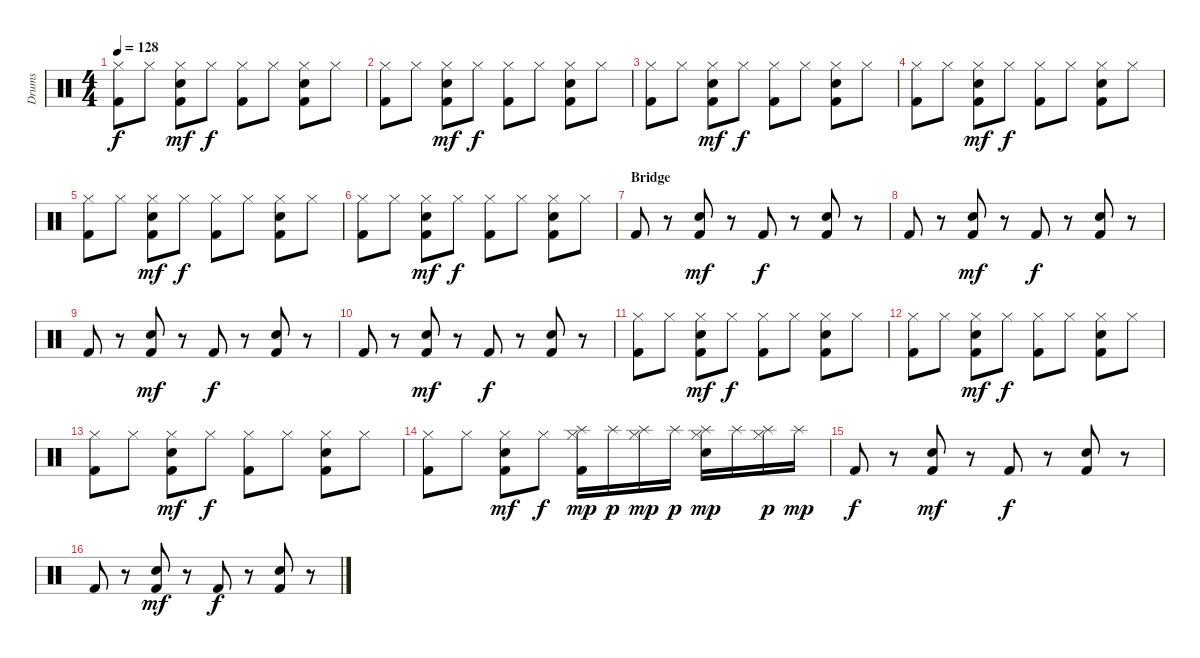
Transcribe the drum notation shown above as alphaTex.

\track ("Drums" "Drums") {instrument percussion}
\staff {score}
\articulation defaults
\ts (4 4)
\tempo 128
\clef neutral
\ks c
("Kick (hit) 2" "Hi-Hat (closed)").8{dy f} "Hi-Hat (closed)".8 ("Kick (hit) 2" "Snare (hit) 2" "Hi-Hat (closed)").8{dy mf} "Hi-Hat (closed)".8{dy f} ("Kick (hit) 2" "Hi-Hat (closed)").8 "Hi-Hat (closed)".8 ("Kick (hit) 2" "Snare (hit) 2" "Hi-Hat (closed)").8 "Hi-Hat (closed)".8 |
("Kick (hit) 2" "Hi-Hat (closed)").8 "Hi-Hat (closed)".8 ("Kick (hit) 2" "Snare (hit) 2" "Hi-Hat (closed)").8{dy mf} "Hi-Hat (closed)".8{dy f} ("Kick (hit) 2" "Hi-Hat (closed)").8 "Hi-Hat (closed)".8 ("Kick (hit) 2" "Snare (hit) 2" "Hi-Hat (closed)").8 "Hi-Hat (closed)".8 |
("Kick (hit) 2" "Hi-Hat (closed)").8 "Hi-Hat (closed)".8 ("Kick (hit) 2" "Snare (hit) 2" "Hi-Hat (closed)").8{dy mf} "Hi-Hat (closed)".8{dy f} ("Kick (hit) 2" "Hi-Hat (closed)").8 "Hi-Hat (closed)".8 ("Kick (hit) 2" "Snare (hit) 2" "Hi-Hat (closed)").8 "Hi-Hat (closed)".8 |
("Kick (hit) 2" "Hi-Hat (closed)").8 "Hi-Hat (closed)".8 ("Kick (hit) 2" "Snare (hit) 2" "Hi-Hat (closed)").8{dy mf} "Hi-Hat (closed)".8{dy f} ("Kick (hit) 2" "Hi-Hat (closed)").8 "Hi-Hat (closed)".8 ("Kick (hit) 2" "Snare (hit) 2" "Hi-Hat (closed)").8 "Hi-Hat (closed)".8 |
("Kick (hit) 2" "Hi-Hat (closed)").8 "Hi-Hat (closed)".8 ("Kick (hit) 2" "Snare (hit) 2" "Hi-Hat (closed)").8{dy mf} "Hi-Hat (closed)".8{dy f} ("Kick (hit) 2" "Hi-Hat (closed)").8 "Hi-Hat (closed)".8 ("Kick (hit) 2" "Snare (hit) 2" "Hi-Hat (closed)").8 "Hi-Hat (closed)".8 |
("Kick (hit) 2" "Hi-Hat (closed)").8 "Hi-Hat (closed)".8 ("Kick (hit) 2" "Snare (hit) 2" "Hi-Hat (closed)").8{dy mf} "Hi-Hat (closed)".8{dy f} ("Kick (hit) 2" "Hi-Hat (closed)").8 "Hi-Hat (closed)".8 ("Kick (hit) 2" "Snare (hit) 2" "Hi-Hat (closed)").8 "Hi-Hat (closed)".8 |
\section ("" "Bridge")
"Kick (hit) 2".8 r.8 ("Kick (hit) 2" "Snare (hit) 2").8{dy mf} r.8 "Kick (hit) 2".8{dy f} r.8 ("Kick (hit) 2" "Snare (hit) 2").8 r.8 |
"Kick (hit) 2".8 r.8 ("Kick (hit) 2" "Snare (hit) 2").8{dy mf} r.8 "Kick (hit) 2".8{dy f} r.8 ("Kick (hit) 2" "Snare (hit) 2").8 r.8 |
"Kick (hit) 2".8 r.8 ("Kick (hit) 2" "Snare (hit) 2").8{dy mf} r.8 "Kick (hit) 2".8{dy f} r.8 ("Kick (hit) 2" "Snare (hit) 2").8 r.8 |
"Kick (hit) 2".8 r.8 ("Kick (hit) 2" "Snare (hit) 2").8{dy mf} r.8 "Kick (hit) 2".8{dy f} r.8 ("Kick (hit) 2" "Snare (hit) 2").8 r.8 |
("Kick (hit) 2" "Hi-Hat (closed)").8 "Hi-Hat (closed)".8 ("Kick (hit) 2" "Snare (hit) 2" "Hi-Hat (closed)").8{dy mf} "Hi-Hat (closed)".8{dy f} ("Kick (hit) 2" "Hi-Hat (closed)").8 "Hi-Hat (closed)".8 ("Kick (hit) 2" "Snare (hit) 2" "Hi-Hat (closed)").8 "Hi-Hat (closed)".8 |
("Kick (hit) 2" "Hi-Hat (closed)").8 "Hi-Hat (closed)".8 ("Kick (hit) 2" "Snare (hit) 2" "Hi-Hat (closed)").8{dy mf} "Hi-Hat (closed)".8{dy f} ("Kick (hit) 2" "Hi-Hat (closed)").8 "Hi-Hat (closed)".8 ("Kick (hit) 2" "Snare (hit) 2" "Hi-Hat (closed)").8 "Hi-Hat (closed)".8 |
("Kick (hit) 2" "Hi-Hat (closed)").8 "Hi-Hat (closed)".8 ("Kick (hit) 2" "Snare (hit) 2" "Hi-Hat (closed)").8{dy mf} "Hi-Hat (closed)".8{dy f} ("Kick (hit) 2" "Hi-Hat (closed)").8 "Hi-Hat (closed)".8 ("Kick (hit) 2" "Snare (hit) 2" "Hi-Hat (closed)").8 "Hi-Hat (closed)".8 |
("Kick (hit) 2" "Hi-Hat (closed)").8 "Hi-Hat (closed)".8 ("Kick (hit) 2" "Snare (hit) 2" "Hi-Hat (closed)").8{dy mf} "Hi-Hat (closed)".8{dy f} ("Splash (hit)" "Kick (hit) 2" "Hi-Hat (closed)").16{dy mp} "Splash (hit)".16{dy p} ("Splash (hit)" "Hi-Hat (closed)").16{dy mp} "Splash (hit)".16{dy p} ("Splash (hit)" "Snare (hit) 2" "Hi-Hat (closed)").16{dy mp} "Splash (hit)".16 ("Splash (hit)" "Hi-Hat (closed)").16{dy p} "Splash (hit)".16{dy mp} |
"Kick (hit) 2".8{dy f} r.8 ("Kick (hit) 2" "Snare (hit) 2").8{dy mf} r.8 "Kick (hit) 2".8{dy f} r.8 ("Kick (hit) 2" "Snare (hit) 2").8 r.8 |
"Kick (hit) 2".8 r.8 ("Kick (hit) 2" "Snare (hit) 2").8{dy mf} r.8 "Kick (hit) 2".8{dy f} r.8 ("Kick (hit) 2" "Snare (hit) 2").8 r.8
